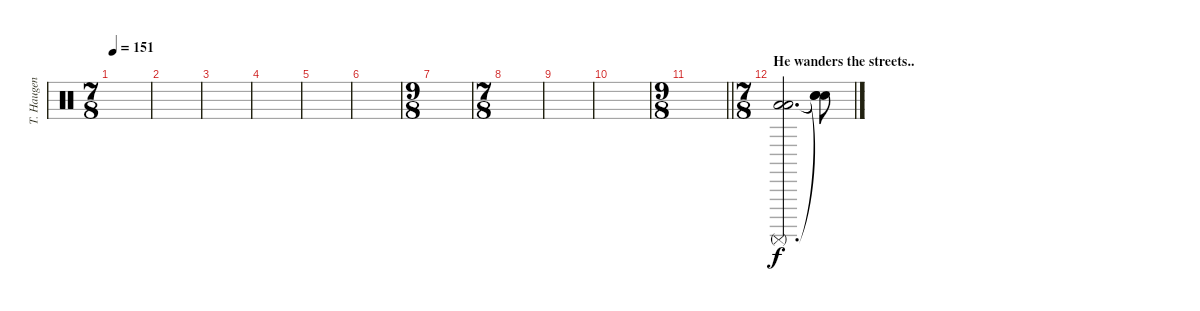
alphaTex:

\track ("T. Haugen" "T. Haugen") {instrument percussion}
\staff {score}
\articulation defaults
\ts (7 8)
\tempo 151
\clef neutral
\ks c
|
|
|
|
|
|
\ts (9 8)
|
\ts (7 8)
|
|
|
\ts (9 8)
\barLineRight lightlight
|
\ts (7 8)
\section ("" "He wanders the streets..")
("Surdo (mute)" "Low Floor Tom (hit)" "Low Floor Tom (hit)").2{d} ("Snare (hit)"{t} "Snare (hit)"{t} "Snare (hit)"{t}).8
